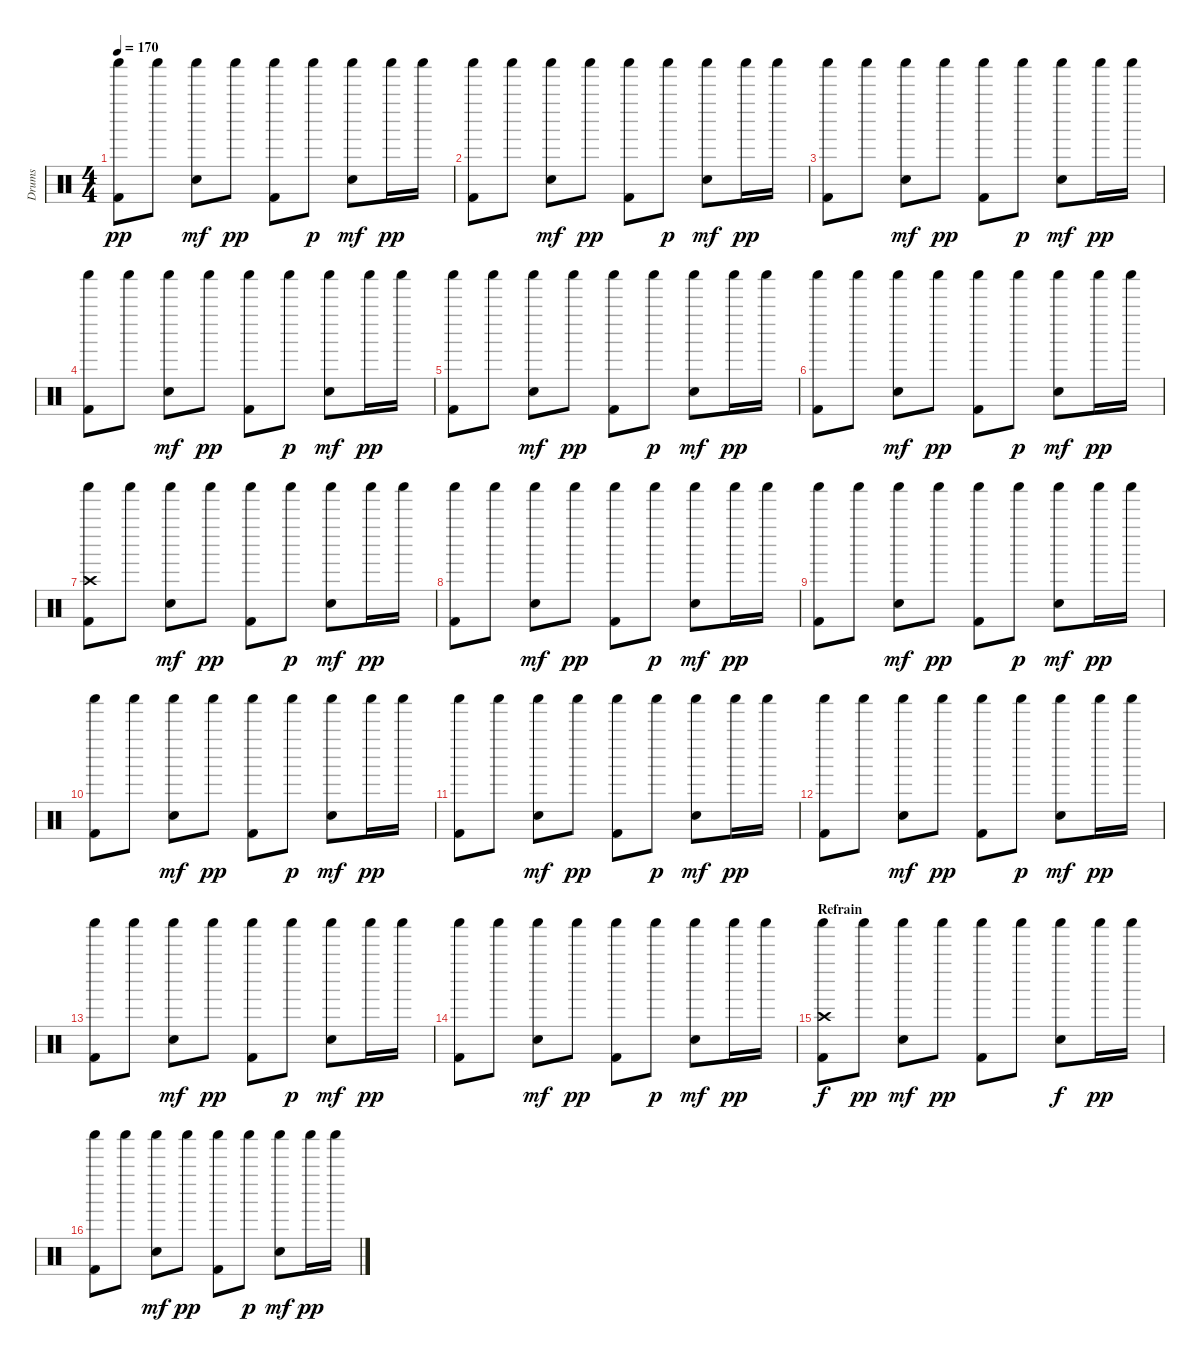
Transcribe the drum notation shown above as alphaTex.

\track ("Drums" "Drums") {instrument percussion}
\staff {score}
\articulation defaults
\ts (4 4)
\tempo 170
\clef neutral
\ks c
("Kick (hit) 2" "Shaker (hit)").8{dy pp} "Shaker (hit)".8 ("Snare (hit) 2" "Shaker (hit)").8{dy mf} "Shaker (hit)".8{dy pp} ("Kick (hit) 2" "Shaker (hit)").8 "Shaker (hit)".8{dy p} ("Snare (hit) 2" "Shaker (hit)").8{dy mf} "Shaker (hit)".16{dy pp} "Shaker (hit)".16 |
("Kick (hit) 2" "Shaker (hit)").8 "Shaker (hit)".8 ("Snare (hit) 2" "Shaker (hit)").8{dy mf} "Shaker (hit)".8{dy pp} ("Kick (hit) 2" "Shaker (hit)").8 "Shaker (hit)".8{dy p} ("Snare (hit) 2" "Shaker (hit)").8{dy mf} "Shaker (hit)".16{dy pp} "Shaker (hit)".16 |
("Kick (hit) 2" "Shaker (hit)").8 "Shaker (hit)".8 ("Snare (hit) 2" "Shaker (hit)").8{dy mf} "Shaker (hit)".8{dy pp} ("Kick (hit) 2" "Shaker (hit)").8 "Shaker (hit)".8{dy p} ("Snare (hit) 2" "Shaker (hit)").8{dy mf} "Shaker (hit)".16{dy pp} "Shaker (hit)".16 |
("Kick (hit) 2" "Shaker (hit)").8 "Shaker (hit)".8 ("Snare (hit) 2" "Shaker (hit)").8{dy mf} "Shaker (hit)".8{dy pp} ("Kick (hit) 2" "Shaker (hit)").8 "Shaker (hit)".8{dy p} ("Snare (hit) 2" "Shaker (hit)").8{dy mf} "Shaker (hit)".16{dy pp} "Shaker (hit)".16 |
("Kick (hit) 2" "Shaker (hit)").8 "Shaker (hit)".8 ("Snare (hit) 2" "Shaker (hit)").8{dy mf} "Shaker (hit)".8{dy pp} ("Kick (hit) 2" "Shaker (hit)").8 "Shaker (hit)".8{dy p} ("Snare (hit) 2" "Shaker (hit)").8{dy mf} "Shaker (hit)".16{dy pp} "Shaker (hit)".16 |
("Kick (hit) 2" "Shaker (hit)").8 "Shaker (hit)".8 ("Snare (hit) 2" "Shaker (hit)").8{dy mf} "Shaker (hit)".8{dy pp} ("Kick (hit) 2" "Shaker (hit)").8 "Shaker (hit)".8{dy p} ("Snare (hit) 2" "Shaker (hit)").8{dy mf} "Shaker (hit)".16{dy pp} "Shaker (hit)".16 |
("Crash high (hit)" "Kick (hit) 2" "Shaker (hit)").8 "Shaker (hit)".8 ("Snare (hit) 2" "Shaker (hit)").8{dy mf} "Shaker (hit)".8{dy pp} ("Kick (hit) 2" "Shaker (hit)").8 "Shaker (hit)".8{dy p} ("Snare (hit) 2" "Shaker (hit)").8{dy mf} "Shaker (hit)".16{dy pp} "Shaker (hit)".16 |
("Kick (hit) 2" "Shaker (hit)").8 "Shaker (hit)".8 ("Snare (hit) 2" "Shaker (hit)").8{dy mf} "Shaker (hit)".8{dy pp} ("Kick (hit) 2" "Shaker (hit)").8 "Shaker (hit)".8{dy p} ("Snare (hit) 2" "Shaker (hit)").8{dy mf} "Shaker (hit)".16{dy pp} "Shaker (hit)".16 |
("Kick (hit) 2" "Shaker (hit)").8 "Shaker (hit)".8 ("Snare (hit) 2" "Shaker (hit)").8{dy mf} "Shaker (hit)".8{dy pp} ("Kick (hit) 2" "Shaker (hit)").8 "Shaker (hit)".8{dy p} ("Snare (hit) 2" "Shaker (hit)").8{dy mf} "Shaker (hit)".16{dy pp} "Shaker (hit)".16 |
("Kick (hit) 2" "Shaker (hit)").8 "Shaker (hit)".8 ("Snare (hit) 2" "Shaker (hit)").8{dy mf} "Shaker (hit)".8{dy pp} ("Kick (hit) 2" "Shaker (hit)").8 "Shaker (hit)".8{dy p} ("Snare (hit) 2" "Shaker (hit)").8{dy mf} "Shaker (hit)".16{dy pp} "Shaker (hit)".16 |
("Kick (hit) 2" "Shaker (hit)").8 "Shaker (hit)".8 ("Snare (hit) 2" "Shaker (hit)").8{dy mf} "Shaker (hit)".8{dy pp} ("Kick (hit) 2" "Shaker (hit)").8 "Shaker (hit)".8{dy p} ("Snare (hit) 2" "Shaker (hit)").8{dy mf} "Shaker (hit)".16{dy pp} "Shaker (hit)".16 |
("Kick (hit) 2" "Shaker (hit)").8 "Shaker (hit)".8 ("Snare (hit) 2" "Shaker (hit)").8{dy mf} "Shaker (hit)".8{dy pp} ("Kick (hit) 2" "Shaker (hit)").8 "Shaker (hit)".8{dy p} ("Snare (hit) 2" "Shaker (hit)").8{dy mf} "Shaker (hit)".16{dy pp} "Shaker (hit)".16 |
("Kick (hit) 2" "Shaker (hit)").8 "Shaker (hit)".8 ("Snare (hit) 2" "Shaker (hit)").8{dy mf} "Shaker (hit)".8{dy pp} ("Kick (hit) 2" "Shaker (hit)").8 "Shaker (hit)".8{dy p} ("Snare (hit) 2" "Shaker (hit)").8{dy mf} "Shaker (hit)".16{dy pp} "Shaker (hit)".16 |
("Kick (hit) 2" "Shaker (hit)").8 "Shaker (hit)".8 ("Snare (hit) 2" "Shaker (hit)").8{dy mf} "Shaker (hit)".8{dy pp} ("Kick (hit) 2" "Shaker (hit)").8 "Shaker (hit)".8{dy p} ("Snare (hit) 2" "Shaker (hit)").8{dy mf} "Shaker (hit)".16{dy pp} "Shaker (hit)".16 |
\section ("" "Refrain")
("Crash high (hit)" "Kick (hit) 2" "Shaker (hit)").8{dy f} "Shaker (hit)".8{dy pp} ("Snare (hit) 2" "Shaker (hit)").8{dy mf} "Shaker (hit)".8{dy pp} ("Kick (hit) 2" "Shaker (hit)").8 "Shaker (hit)".8 ("Snare (hit) 2" "Shaker (hit)").8{dy f} "Shaker (hit)".16{dy pp} "Shaker (hit)".16 |
("Kick (hit) 2" "Shaker (hit)").8 "Shaker (hit)".8 ("Snare (hit) 2" "Shaker (hit)").8{dy mf} "Shaker (hit)".8{dy pp} ("Kick (hit) 2" "Shaker (hit)").8 "Shaker (hit)".8{dy p} ("Snare (hit) 2" "Shaker (hit)").8{dy mf} "Shaker (hit)".16{dy pp} "Shaker (hit)".16
